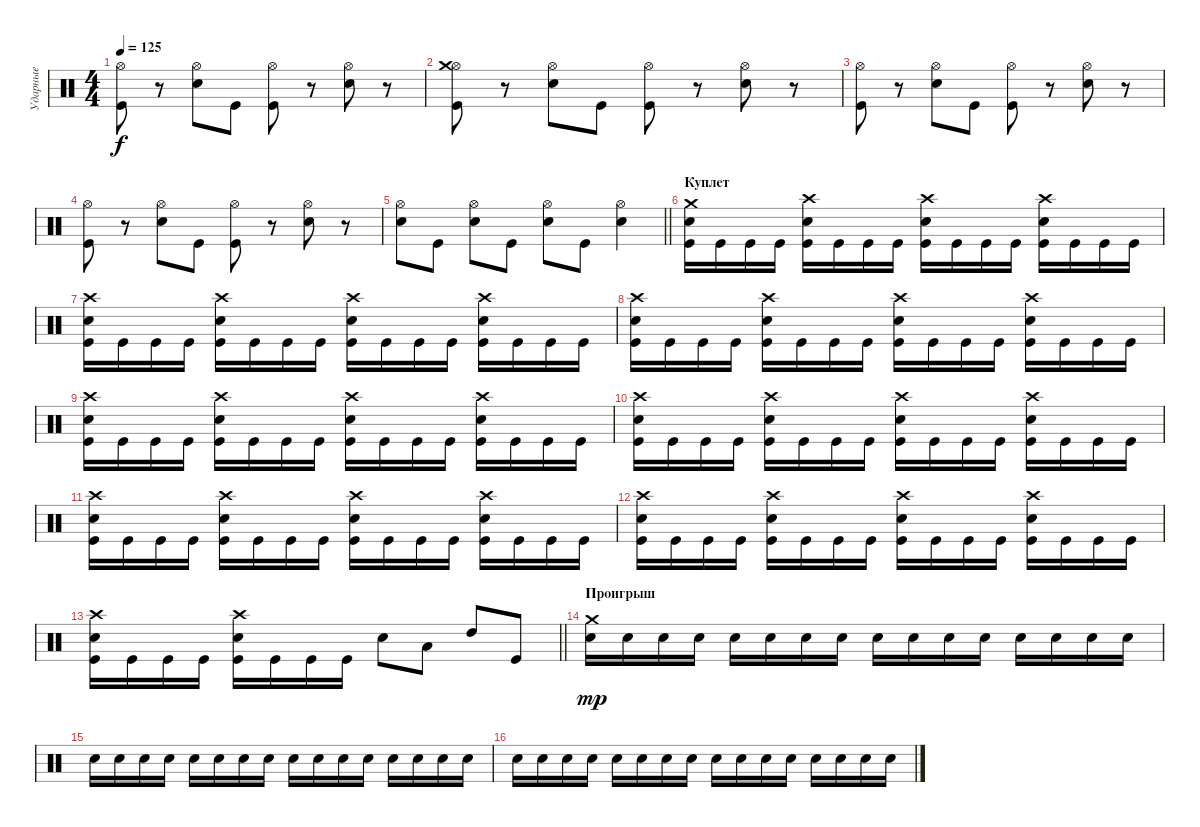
\track ("Ударные" "Ударные") {instrument percussion}
\staff {score}
\articulation defaults
\ts (4 4)
\tempo 125
\clef neutral
\ks c
("Hi-Hat (open)" "Kick (hit)").8{dy f} r.8 ("Hi-Hat (open)" "Electric Snare (hit)").8 "Kick (hit)".8 ("Hi-Hat (open)" "Kick (hit)").8 r.8 ("Hi-Hat (open)" "Electric Snare (hit)").8 r.8 |
("Hi-Hat (open)" "Kick (hit)" "Crash medium (hit)").8 r.8 ("Hi-Hat (open)" "Electric Snare (hit)").8 "Kick (hit)".8 ("Hi-Hat (open)" "Kick (hit)").8 r.8 ("Hi-Hat (open)" "Electric Snare (hit)").8 r.8 |
("Hi-Hat (open)" "Kick (hit)").8 r.8 ("Hi-Hat (open)" "Electric Snare (hit)").8 "Kick (hit)".8 ("Hi-Hat (open)" "Kick (hit)").8 r.8 ("Hi-Hat (open)" "Electric Snare (hit)").8 r.8 |
("Hi-Hat (open)" "Kick (hit)").8 r.8 ("Hi-Hat (open)" "Electric Snare (hit)").8 "Kick (hit)".8 ("Hi-Hat (open)" "Kick (hit)").8 r.8 ("Hi-Hat (open)" "Electric Snare (hit)").8 r.8 |
\barLineRight lightlight
("Hi-Hat (open)" "Electric Snare (hit)").8 "Kick (hit)".8 ("Hi-Hat (open)" "Electric Snare (hit)").8 "Kick (hit)".8 ("Hi-Hat (open)" "Electric Snare (hit)").8 "Kick (hit)".8 ("Hi-Hat (open)" "Electric Snare (hit)").4 |
\section ("" "Куплет")
("Crash medium (hit)" "Electric Snare (hit)" "Kick (hit)").16 "Kick (hit)".16 "Kick (hit)".16 "Kick (hit)".16 ("Crash high (hit)" "Electric Snare (hit)" "Kick (hit)").16 "Kick (hit)".16 "Kick (hit)".16 "Kick (hit)".16 ("Crash high (hit)" "Electric Snare (hit)" "Kick (hit)").16 "Kick (hit)".16 "Kick (hit)".16 "Kick (hit)".16 ("Crash high (hit)" "Electric Snare (hit)" "Kick (hit)").16 "Kick (hit)".16 "Kick (hit)".16 "Kick (hit)".16 |
("Crash high (hit)" "Electric Snare (hit)" "Kick (hit)").16 "Kick (hit)".16 "Kick (hit)".16 "Kick (hit)".16 ("Crash high (hit)" "Electric Snare (hit)" "Kick (hit)").16 "Kick (hit)".16 "Kick (hit)".16 "Kick (hit)".16 ("Crash high (hit)" "Electric Snare (hit)" "Kick (hit)").16 "Kick (hit)".16 "Kick (hit)".16 "Kick (hit)".16 ("Crash high (hit)" "Electric Snare (hit)" "Kick (hit)").16 "Kick (hit)".16 "Kick (hit)".16 "Kick (hit)".16 |
("Crash high (hit)" "Electric Snare (hit)" "Kick (hit)").16 "Kick (hit)".16 "Kick (hit)".16 "Kick (hit)".16 ("Crash high (hit)" "Electric Snare (hit)" "Kick (hit)").16 "Kick (hit)".16 "Kick (hit)".16 "Kick (hit)".16 ("Crash high (hit)" "Electric Snare (hit)" "Kick (hit)").16 "Kick (hit)".16 "Kick (hit)".16 "Kick (hit)".16 ("Crash high (hit)" "Electric Snare (hit)" "Kick (hit)").16 "Kick (hit)".16 "Kick (hit)".16 "Kick (hit)".16 |
("Crash high (hit)" "Electric Snare (hit)" "Kick (hit)").16 "Kick (hit)".16 "Kick (hit)".16 "Kick (hit)".16 ("Crash high (hit)" "Electric Snare (hit)" "Kick (hit)").16 "Kick (hit)".16 "Kick (hit)".16 "Kick (hit)".16 ("Crash high (hit)" "Electric Snare (hit)" "Kick (hit)").16 "Kick (hit)".16 "Kick (hit)".16 "Kick (hit)".16 ("Crash high (hit)" "Electric Snare (hit)" "Kick (hit)").16 "Kick (hit)".16 "Kick (hit)".16 "Kick (hit)".16 |
("Crash high (hit)" "Electric Snare (hit)" "Kick (hit)").16 "Kick (hit)".16 "Kick (hit)".16 "Kick (hit)".16 ("Crash high (hit)" "Electric Snare (hit)" "Kick (hit)").16 "Kick (hit)".16 "Kick (hit)".16 "Kick (hit)".16 ("Crash high (hit)" "Electric Snare (hit)" "Kick (hit)").16 "Kick (hit)".16 "Kick (hit)".16 "Kick (hit)".16 ("Crash high (hit)" "Electric Snare (hit)" "Kick (hit)").16 "Kick (hit)".16 "Kick (hit)".16 "Kick (hit)".16 |
("Crash high (hit)" "Electric Snare (hit)" "Kick (hit)").16 "Kick (hit)".16 "Kick (hit)".16 "Kick (hit)".16 ("Crash high (hit)" "Electric Snare (hit)" "Kick (hit)").16 "Kick (hit)".16 "Kick (hit)".16 "Kick (hit)".16 ("Crash high (hit)" "Electric Snare (hit)" "Kick (hit)").16 "Kick (hit)".16 "Kick (hit)".16 "Kick (hit)".16 ("Crash high (hit)" "Electric Snare (hit)" "Kick (hit)").16 "Kick (hit)".16 "Kick (hit)".16 "Kick (hit)".16 |
("Crash high (hit)" "Electric Snare (hit)" "Kick (hit)").16 "Kick (hit)".16 "Kick (hit)".16 "Kick (hit)".16 ("Crash high (hit)" "Electric Snare (hit)" "Kick (hit)").16 "Kick (hit)".16 "Kick (hit)".16 "Kick (hit)".16 ("Crash high (hit)" "Electric Snare (hit)" "Kick (hit)").16 "Kick (hit)".16 "Kick (hit)".16 "Kick (hit)".16 ("Crash high (hit)" "Electric Snare (hit)" "Kick (hit)").16 "Kick (hit)".16 "Kick (hit)".16 "Kick (hit)".16 |
\barLineRight lightlight
("Crash high (hit)" "Electric Snare (hit)" "Kick (hit)").16 "Kick (hit)".16 "Kick (hit)".16 "Kick (hit)".16 ("Crash high (hit)" "Electric Snare (hit)" "Kick (hit)").16 "Kick (hit)".16 "Kick (hit)".16 "Kick (hit)".16 "Electric Snare (hit)".8 "Low Tom (hit)".8 "High Tom (hit)".8 "Kick (hit)".8 |
\section ("" "Проигрыш")
("Crash medium (hit)" "Electric Snare (hit)").16{dy mp} "Electric Snare (hit)".16 "Electric Snare (hit)".16 "Electric Snare (hit)".16 "Electric Snare (hit)".16 "Electric Snare (hit)".16 "Electric Snare (hit)".16 "Electric Snare (hit)".16 "Electric Snare (hit)".16 "Electric Snare (hit)".16 "Electric Snare (hit)".16 "Electric Snare (hit)".16 "Electric Snare (hit)".16 "Electric Snare (hit)".16 "Electric Snare (hit)".16 "Electric Snare (hit)".16 |
"Electric Snare (hit)".16 "Electric Snare (hit)".16 "Electric Snare (hit)".16 "Electric Snare (hit)".16 "Electric Snare (hit)".16 "Electric Snare (hit)".16 "Electric Snare (hit)".16 "Electric Snare (hit)".16 "Electric Snare (hit)".16 "Electric Snare (hit)".16 "Electric Snare (hit)".16 "Electric Snare (hit)".16 "Electric Snare (hit)".16 "Electric Snare (hit)".16 "Electric Snare (hit)".16 "Electric Snare (hit)".16 |
"Electric Snare (hit)".16 "Electric Snare (hit)".16 "Electric Snare (hit)".16 "Electric Snare (hit)".16 "Electric Snare (hit)".16 "Electric Snare (hit)".16 "Electric Snare (hit)".16 "Electric Snare (hit)".16 "Electric Snare (hit)".16 "Electric Snare (hit)".16 "Electric Snare (hit)".16 "Electric Snare (hit)".16 "Electric Snare (hit)".16 "Electric Snare (hit)".16 "Electric Snare (hit)".16 "Electric Snare (hit)".16
